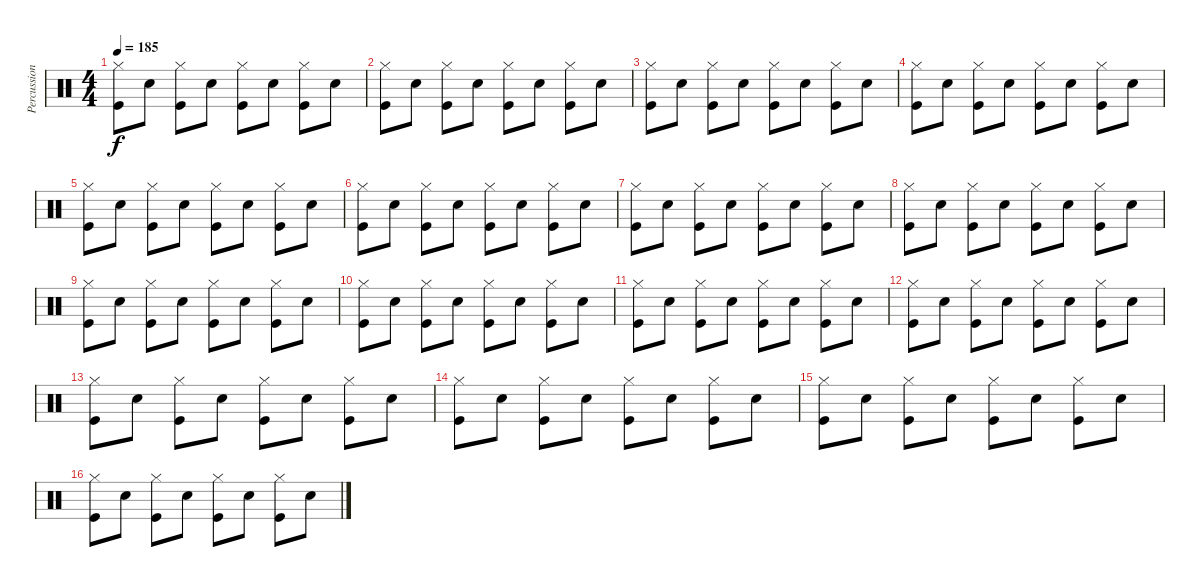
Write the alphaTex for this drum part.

\track ("Percussion" "Percussion") {instrument percussion}
\staff {score}
\articulation defaults
\ts (4 4)
\tempo 185
\clef neutral
\ks c
("Hi-Hat (closed)" "Kick (hit)").8{dy f} "Snare (hit) 2".8 ("Hi-Hat (closed)" "Kick (hit)").8 "Snare (hit) 2".8 ("Hi-Hat (closed)" "Kick (hit)").8 "Snare (hit) 2".8 ("Hi-Hat (closed)" "Kick (hit)").8 "Snare (hit) 2".8 |
("Hi-Hat (closed)" "Kick (hit)").8 "Snare (hit) 2".8 ("Hi-Hat (closed)" "Kick (hit)").8 "Snare (hit) 2".8 ("Hi-Hat (closed)" "Kick (hit)").8 "Snare (hit) 2".8 ("Hi-Hat (closed)" "Kick (hit)").8 "Snare (hit) 2".8 |
("Hi-Hat (closed)" "Kick (hit)").8 "Snare (hit) 2".8 ("Hi-Hat (closed)" "Kick (hit)").8 "Snare (hit) 2".8 ("Hi-Hat (closed)" "Kick (hit)").8 "Snare (hit) 2".8 ("Hi-Hat (closed)" "Kick (hit)").8 "Snare (hit) 2".8 |
("Hi-Hat (closed)" "Kick (hit)").8 "Snare (hit) 2".8 ("Hi-Hat (closed)" "Kick (hit)").8 "Snare (hit) 2".8 ("Hi-Hat (closed)" "Kick (hit)").8 "Snare (hit) 2".8 ("Hi-Hat (closed)" "Kick (hit)").8 "Snare (hit) 2".8 |
("Hi-Hat (closed)" "Kick (hit)").8 "Snare (hit) 2".8 ("Hi-Hat (closed)" "Kick (hit)").8 "Snare (hit) 2".8 ("Hi-Hat (closed)" "Kick (hit)").8 "Snare (hit) 2".8 ("Hi-Hat (closed)" "Kick (hit)").8 "Snare (hit) 2".8 |
("Hi-Hat (closed)" "Kick (hit)").8 "Snare (hit) 2".8 ("Hi-Hat (closed)" "Kick (hit)").8 "Snare (hit) 2".8 ("Hi-Hat (closed)" "Kick (hit)").8 "Snare (hit) 2".8 ("Hi-Hat (closed)" "Kick (hit)").8 "Snare (hit) 2".8 |
("Hi-Hat (closed)" "Kick (hit)").8 "Snare (hit) 2".8 ("Hi-Hat (closed)" "Kick (hit)").8 "Snare (hit) 2".8 ("Hi-Hat (closed)" "Kick (hit)").8 "Snare (hit) 2".8 ("Hi-Hat (closed)" "Kick (hit)").8 "Snare (hit) 2".8 |
("Hi-Hat (closed)" "Kick (hit)").8 "Snare (hit) 2".8 ("Hi-Hat (closed)" "Kick (hit)").8 "Snare (hit) 2".8 ("Hi-Hat (closed)" "Kick (hit)").8 "Snare (hit) 2".8 ("Hi-Hat (closed)" "Kick (hit)").8 "Snare (hit) 2".8 |
("Hi-Hat (closed)" "Kick (hit)").8 "Snare (hit) 2".8 ("Hi-Hat (closed)" "Kick (hit)").8 "Snare (hit) 2".8 ("Hi-Hat (closed)" "Kick (hit)").8 "Snare (hit) 2".8 ("Hi-Hat (closed)" "Kick (hit)").8 "Snare (hit) 2".8 |
("Hi-Hat (closed)" "Kick (hit)").8 "Snare (hit) 2".8 ("Hi-Hat (closed)" "Kick (hit)").8 "Snare (hit) 2".8 ("Hi-Hat (closed)" "Kick (hit)").8 "Snare (hit) 2".8 ("Hi-Hat (closed)" "Kick (hit)").8 "Snare (hit) 2".8 |
("Hi-Hat (closed)" "Kick (hit)").8 "Snare (hit) 2".8 ("Hi-Hat (closed)" "Kick (hit)").8 "Snare (hit) 2".8 ("Hi-Hat (closed)" "Kick (hit)").8 "Snare (hit) 2".8 ("Hi-Hat (closed)" "Kick (hit)").8 "Snare (hit) 2".8 |
("Hi-Hat (closed)" "Kick (hit)").8 "Snare (hit) 2".8 ("Hi-Hat (closed)" "Kick (hit)").8 "Snare (hit) 2".8 ("Hi-Hat (closed)" "Kick (hit)").8 "Snare (hit) 2".8 ("Hi-Hat (closed)" "Kick (hit)").8 "Snare (hit) 2".8 |
("Hi-Hat (closed)" "Kick (hit)").8 "Snare (hit) 2".8 ("Hi-Hat (closed)" "Kick (hit)").8 "Snare (hit) 2".8 ("Hi-Hat (closed)" "Kick (hit)").8 "Snare (hit) 2".8 ("Hi-Hat (closed)" "Kick (hit)").8 "Snare (hit) 2".8 |
("Hi-Hat (closed)" "Kick (hit)").8 "Snare (hit) 2".8 ("Hi-Hat (closed)" "Kick (hit)").8 "Snare (hit) 2".8 ("Hi-Hat (closed)" "Kick (hit)").8 "Snare (hit) 2".8 ("Hi-Hat (closed)" "Kick (hit)").8 "Snare (hit) 2".8 |
("Hi-Hat (closed)" "Kick (hit)").8 "Snare (hit) 2".8 ("Hi-Hat (closed)" "Kick (hit)").8 "Snare (hit) 2".8 ("Hi-Hat (closed)" "Kick (hit)").8 "Snare (hit) 2".8 ("Hi-Hat (closed)" "Kick (hit)").8 "Snare (hit) 2".8 |
("Hi-Hat (closed)" "Kick (hit)").8 "Snare (hit) 2".8 ("Hi-Hat (closed)" "Kick (hit)").8 "Snare (hit) 2".8 ("Hi-Hat (closed)" "Kick (hit)").8 "Snare (hit) 2".8 ("Hi-Hat (closed)" "Kick (hit)").8 "Snare (hit) 2".8
